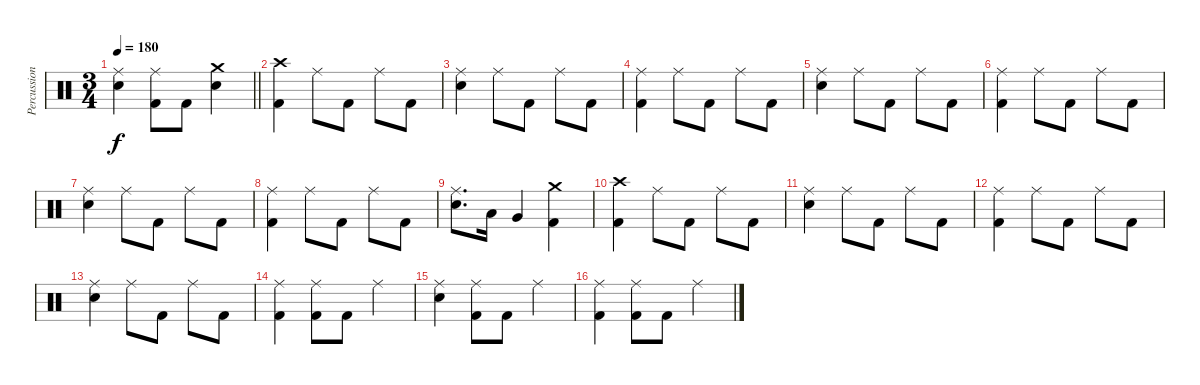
\track ("Percussion" "Percussion") {instrument percussion}
\staff {score}
\articulation defaults
\ts (3 4)
\tempo 180
\clef neutral
\barLineRight lightlight
\ks c
("Ride (middle)" "Electric Snare (hit)").4{dy f} ("Ride (middle)" "Kick (hit) 2").8 "Kick (hit) 2".8 ("Crash medium (hit)" "Electric Snare (hit)").4 |
("Crash high (hit)" "Kick (hit) 2").4 "Ride (middle)".8 "Kick (hit) 2".8 "Ride (middle)".8 "Kick (hit) 2".8 |
("Ride (middle)" "Electric Snare (hit)").4 "Ride (middle)".8 "Kick (hit) 2".8 "Ride (middle)".8 "Kick (hit) 2".8 |
("Ride (middle)" "Kick (hit) 2").4 "Ride (middle)".8 "Kick (hit) 2".8 "Ride (middle)".8 "Kick (hit) 2".8 |
("Ride (middle)" "Electric Snare (hit)").4 "Ride (middle)".8 "Kick (hit) 2".8 "Ride (middle)".8 "Kick (hit) 2".8 |
("Ride (middle)" "Kick (hit) 2").4 "Ride (middle)".8 "Kick (hit) 2".8 "Ride (middle)".8 "Kick (hit) 2".8 |
("Ride (middle)" "Electric Snare (hit)").4 "Ride (middle)".8 "Kick (hit) 2".8 "Ride (middle)".8 "Kick (hit) 2".8 |
("Ride (middle)" "Kick (hit) 2").4 "Ride (middle)".8 "Kick (hit) 2".8 "Ride (middle)".8 "Kick (hit) 2".8 |
("Ride (middle)" "Electric Snare (hit)").8{d} "Low Tom (hit)".16 "Very Low Tom (hit)".4 ("Crash medium (hit)" "Kick (hit) 2").4 |
("Crash high (hit)" "Kick (hit) 2").4 "Ride (middle)".8 "Kick (hit) 2".8 "Ride (middle)".8 "Kick (hit) 2".8 |
("Ride (middle)" "Electric Snare (hit)").4 "Ride (middle)".8 "Kick (hit) 2".8 "Ride (middle)".8 "Kick (hit) 2".8 |
("Ride (middle)" "Kick (hit) 2").4 "Ride (middle)".8 "Kick (hit) 2".8 "Ride (middle)".8 "Kick (hit) 2".8 |
("Ride (middle)" "Electric Snare (hit)").4 "Ride (middle)".8 "Kick (hit) 2".8 "Ride (middle)".8 "Kick (hit) 2".8 |
("Ride (middle)" "Kick (hit) 2").4 ("Ride (middle)" "Kick (hit) 2").8 "Kick (hit) 2".8 "Ride (middle)".4 |
("Ride (middle)" "Electric Snare (hit)").4 ("Ride (middle)" "Kick (hit) 2").8 "Kick (hit) 2".8 "Ride (middle)".4 |
("Ride (middle)" "Kick (hit) 2").4 ("Ride (middle)" "Kick (hit) 2").8 "Kick (hit) 2".8 "Ride (middle)".4
